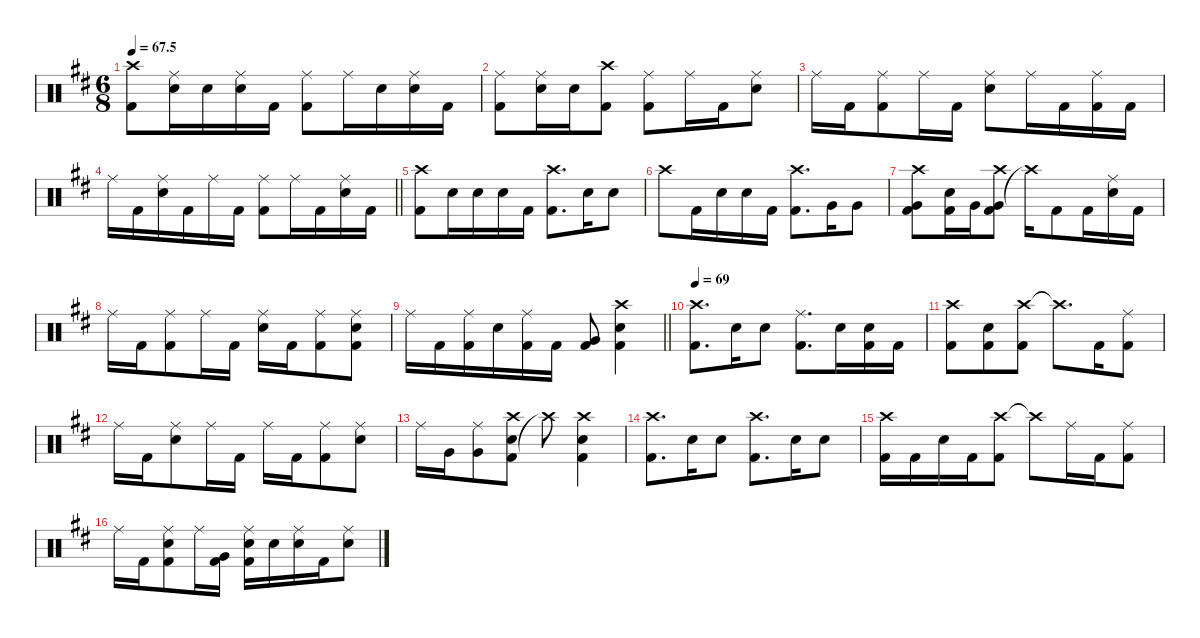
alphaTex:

\defaultSystemsLayout 4
\hideDynamics
\bracketExtendMode groupsimilarinstruments
\singleTrackTrackNamePolicy hidden
\multiTrackTrackNamePolicy hidden
\firstSystemTrackNameMode fullname
\firstSystemTrackNameOrientation horizontal
\otherSystemsTrackNameOrientation horizontal
\track ("Drumkit" "drm.") {defaultSystemsLayout 4 instrument percussion}
\staff {score}
\articulation defaults
\ts (6 8)
\tempo
67.5
\accidentals auto
\clef neutral
\ottava regular
\simile none
\ks bminor
("Kick (hit) 2"{acc forcenatural} "Crash high (hit)"{acc #}).8{dy ff beam Down} ("Snare (hit) 2"{acc forcenatural} "Ride (middle)"{acc #}).16{beam Down} "Snare (hit) 2"{acc forcenatural}.16{beam Down} ("Snare (hit) 2"{acc forcenatural} "Ride (middle)"{acc #}).16{beam Down} "Kick (hit) 2"{acc forcenatural}.16{beam Down} ("Ride (middle)"{acc #} "Kick (hit) 2"{acc forcenatural}).8{beam Down} "Ride (middle)"{acc #}.16{beam Down} "Snare (hit) 2"{acc forcenatural}.16{beam Down} ("Ride (middle)"{acc #} "Snare (hit) 2"{acc forcenatural}).16{beam Down} "Kick (hit) 2"{acc forcenatural}.16{beam Down} |
("Kick (hit) 2"{acc forcenatural} "Ride (middle)"{acc #}).8{beam Down} ("Snare (hit) 2"{acc forcenatural} "Ride (middle)"{acc #}).16{beam Down} "Snare (hit) 2"{acc forcenatural}.16{beam Down} ("Kick (hit) 2"{acc forcenatural} "Crash high (hit)"{acc #}).8{beam Down} ("Ride (middle)"{acc #} "Kick (hit) 2"{acc forcenatural}).8{beam Down} "Ride (middle)"{acc #}.16{beam Down} "Kick (hit) 2"{acc forcenatural}.16{beam Down} ("Ride (middle)"{acc #} "Snare (hit) 2"{acc forcenatural}).8{beam Down} |
"Ride (middle)"{acc #}.16{beam Down} "Kick (hit) 2"{acc forcenatural}.16{beam Down} ("Ride (middle)"{acc #} "Kick (hit) 2"{acc forcenatural}).8{beam Down} "Ride (middle)"{acc #}.16{beam Down} "Kick (hit) 2"{acc forcenatural}.16{beam Down} ("Ride (middle)"{acc #} "Snare (hit) 2"{acc forcenatural}).8{beam Down} "Ride (middle)"{acc #}.16{beam Down} "Kick (hit) 2"{acc forcenatural}.16{beam Down} ("Kick (hit) 2"{acc forcenatural} "Ride (middle)"{acc #}).16{beam Down} "Kick (hit) 2"{acc forcenatural}.16{beam Down} |
\barLineRight lightlight "Ride (middle)"{acc #}.16{beam Down} "Kick (hit) 2"{acc forcenatural}.16{beam Down}
("Ride (middle)"{acc #} "Snare (hit) 2"{acc forcenatural}).16{beam Down} "Kick (hit) 2"{acc forcenatural}.16{beam Down} "Ride (middle)"{acc #}.16{beam Down} "Kick (hit) 2"{acc forcenatural}.16{beam Down} ("Ride (middle)"{acc #} "Kick (hit) 2"{acc forcenatural}).8{beam Down} "Ride (middle)"{acc #}.16{beam Down} "Kick (hit) 2"{acc forcenatural}.16{beam Down} ("Ride (middle)"{acc #} "Snare (hit) 2"{acc forcenatural}).16{beam Down} "Kick (hit) 2"{acc forcenatural}.16{beam Down} |
("Kick (hit) 2"{acc forcenatural} "Crash high (hit)"{acc #}).8{beam Down} "Snare (hit) 2"{acc forcenatural}.16{beam Down} "Snare (hit) 2"{acc forcenatural}.16{beam Down} "Snare (hit) 2"{acc forcenatural}.16{beam Down} "Kick (hit) 2"{acc forcenatural}.16{beam Down} ("Kick (hit) 2"{acc forcenatural} "Crash high (hit)"{acc #}).8{d beam Down} "Snare (hit) 2"{acc forcenatural}.16{beam Down} "Snare (hit) 2"{acc forcenatural}.8{beam Down} |
"Crash high (hit)"{acc #}.8{beam Down} "Kick (hit) 2"{acc forcenatural}.16{beam Down} "Snare (hit) 2"{acc forcenatural}.16{beam Down} "Snare (hit) 2"{acc forcenatural}.16{beam Down} "Kick (hit) 2"{acc forcenatural}.16{beam Down} ("Kick (hit) 2"{acc forcenatural} "Crash high (hit)"{acc #}).8{d beam Down} "Very Low Tom (hit)"{acc forcenatural}.16{beam Down} "Very Low Tom (hit)"{acc forcenatural}.8{beam Down} |
("Kick (hit) 2"{acc forcenatural} "Very Low Tom (hit)"{acc forcenatural} "Crash high (hit)"{acc #}).8{beam Down} ("Snare (hit) 2"{acc forcenatural} "Kick (hit) 2"{acc forcenatural}).16{beam Down} "Very Low Tom (hit)"{acc forcenatural}.16{beam Down} ("Kick (hit) 2"{acc forcenatural} "Very Low Tom (hit)"{acc forcenatural} "Crash high (hit)"{acc #}).8{beam Down} "Crash high (hit)"{t acc #}.16{beam Down} "Kick (hit) 2"{acc forcenatural}.8{beam Down} "Kick (hit) 2"{acc forcenatural}.16{beam Down} ("Ride (middle)"{acc #} "Snare (hit) 2"{acc forcenatural}).16{beam Down} "Kick (hit) 2"{acc forcenatural}.16{beam Down} |
"Ride (middle)"{acc #}.16{beam Down} "Kick (hit) 2"{acc forcenatural}.16{beam Down} ("Ride (middle)"{acc #} "Kick (hit) 2"{acc forcenatural}).8{beam Down} "Ride (middle)"{acc #}.16{beam Down} "Kick (hit) 2"{acc forcenatural}.16{beam Down} ("Ride (middle)"{acc #} "Snare (hit) 2"{acc forcenatural}).16{beam Down} "Kick (hit) 2"{acc forcenatural}.16{beam Down} ("Kick (hit) 2"{acc forcenatural} "Ride (middle)"{acc #}).8{beam Down} ("Ride (middle)"{acc #} "Kick (hit) 2"{acc forcenatural} "Snare (hit) 2"{acc forcenatural}).8{beam Down} |
\barLineRight lightlight "Ride (middle)"{acc #}.16{beam Down} "Kick (hit) 2"{acc forcenatural}.16{beam Down}
("Kick (hit) 2"{acc forcenatural} "Ride (middle)"{acc #}).16{beam Down} "Snare (hit) 2"{acc forcenatural}.16{beam Down} ("Kick (hit) 2"{acc forcenatural} "Ride (middle)"{acc #}).16{beam Down} "Kick (hit) 2"{acc forcenatural}.16{beam Down} ("Kick (hit) 2"{acc forcenatural} "Very Low Tom (hit)"{acc forcenatural}).8{beam Up} ("Snare (hit) 2"{acc forcenatural} "Kick (hit) 2"{acc forcenatural} "Crash high (hit)"{acc #}).4{beam Down} |
\tempo 69
("Kick (hit) 2"{acc forcenatural} "Crash high (hit)"{acc #}).8{d beam Down} "Snare (hit) 2"{acc forcenatural}.16{beam Down} "Snare (hit) 2"{acc forcenatural}.8{beam Down} ("Kick (hit) 2"{acc forcenatural} "Ride (middle)"{acc #}).8{d beam Down} "Snare (hit) 2"{acc forcenatural}.16{beam Down} ("Kick (hit) 2"{acc forcenatural} "Snare (hit) 2"{acc forcenatural}).16{beam Down} "Kick (hit) 2"{acc forcenatural}.16{beam Down} |
("Kick (hit) 2"{acc forcenatural} "Crash high (hit)"{acc #}).8{beam Down} ("Kick (hit) 2"{acc forcenatural} "Snare (hit) 2"{acc forcenatural}).8{beam Down} ("Crash high (hit)"{acc #} "Kick (hit) 2"{acc forcenatural}).8{beam Down} "Crash high (hit)"{t acc #}.8{d beam Down} "Kick (hit) 2"{acc forcenatural}.16{beam Down} ("Ride (middle)"{acc #} "Kick (hit) 2"{acc forcenatural}).8{beam Down} |
"Ride (middle)"{acc #}.16{beam Down} "Kick (hit) 2"{acc forcenatural}.16{beam Down} ("Ride (middle)"{acc #} "Snare (hit) 2"{acc forcenatural}).8{beam Down} "Ride (middle)"{acc #}.16{beam Down} "Kick (hit) 2"{acc forcenatural}.16{beam Down} "Ride (middle)"{acc #}.16{beam Down} "Kick (hit) 2"{acc forcenatural}.16{beam Down} ("Kick (hit) 2"{acc forcenatural} "Ride (middle)"{acc #}).8{beam Down} ("Ride (middle)"{acc #} "Snare (hit) 2"{acc forcenatural}).8{beam Down} |
"Ride (middle)"{acc #}.16{beam Down} "Very Low Tom (hit)"{acc forcenatural}.16{beam Down} ("Very Low Tom (hit)"{acc forcenatural} "Ride (middle)"{acc #}).8{beam Down} ("Kick (hit) 2"{acc forcenatural} "Snare (hit) 2"{acc forcenatural} "Crash high (hit)"{acc #}).8{beam Down} "Crash high (hit)"{t acc #}.8{beam Down} ("Snare (hit) 2"{acc forcenatural} "Kick (hit) 2"{acc forcenatural} "Crash high (hit)"{acc #}).4{beam Down} |
("Kick (hit) 2"{acc forcenatural} "Crash high (hit)"{acc #}).8{d beam Down} "Snare (hit) 2"{acc forcenatural}.16{beam Down} "Snare (hit) 2"{acc forcenatural}.8{beam Down} ("Kick (hit) 2"{acc forcenatural} "Crash high (hit)"{acc #}).8{d beam Down} "Snare (hit) 2"{acc forcenatural}.16{beam Down} "Snare (hit) 2"{acc forcenatural}.8{beam Down} |
("Kick (hit) 2"{acc forcenatural} "Crash high (hit)"{acc #}).16{beam Down} "Kick (hit) 2"{acc forcenatural}.16{beam Down} "Snare (hit) 2"{acc forcenatural}.16{beam Down} "Kick (hit) 2"{acc forcenatural}.16{beam Down} ("Crash high (hit)"{acc #} "Kick (hit) 2"{acc forcenatural}).8{beam Down} "Crash high (hit)"{t acc #}.8{beam Down} "Ride (middle)"{acc #}.16{beam Down} "Kick (hit) 2"{acc forcenatural}.16{beam Down} ("Ride (middle)"{acc #} "Kick (hit) 2"{acc forcenatural}).8{beam Down} |
"Ride (middle)"{acc #}.16{beam Down} "Kick (hit) 2"{acc forcenatural}.16{beam Down} ("Ride (middle)"{acc #} "Kick (hit) 2"{acc forcenatural} "Snare (hit) 2"{acc forcenatural}).8{beam Down} "Ride (middle)"{acc #}.16{beam Down} ("Kick (hit) 2"{acc forcenatural} "Very Low Tom (hit)"{acc forcenatural}).16{beam Down} ("Snare (hit) 2"{acc forcenatural} "Ride (middle)"{acc #} "Kick (hit) 2"{acc forcenatural}).16{beam Down} "Snare (hit) 2"{acc forcenatural}.16{beam Down} ("Snare (hit) 2"{acc forcenatural} "Ride (middle)"{acc #}).16{beam Down} "Kick (hit) 2"{acc forcenatural}.16{beam Down} ("Snare (hit) 2"{acc forcenatural} "Ride (middle)"{acc #}).8{beam Down}
